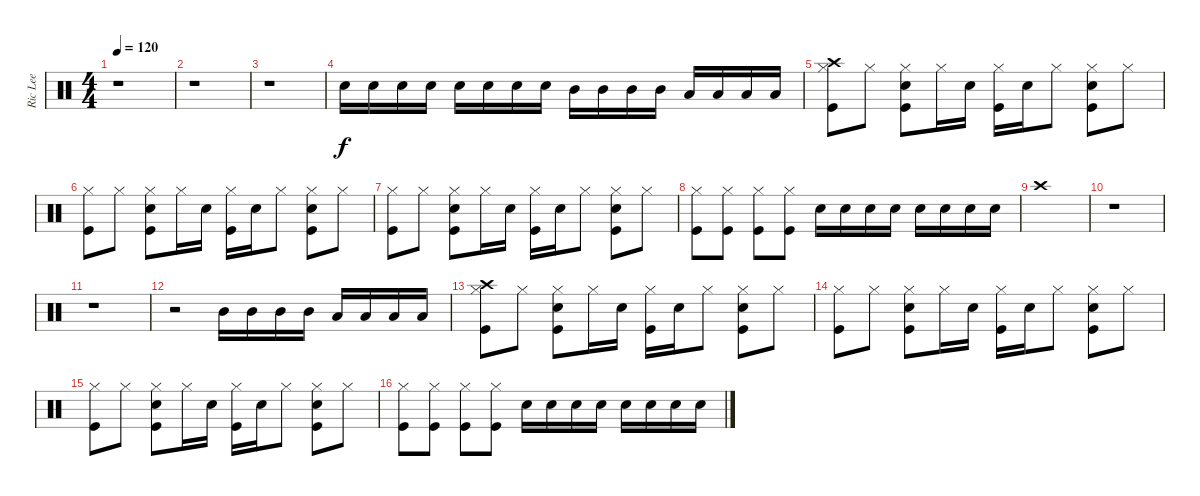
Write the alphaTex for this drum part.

\track ("Ric Lee" "Ric Lee") {instrument percussion}
\staff {score}
\articulation defaults
\ts (4 4)
\tempo 120
\clef neutral
\ks c
r.1{dy f} |
r.1 |
r.1 |
"Snare (hit) 2".16 "Snare (hit) 2".16 "Snare (hit) 2".16 "Snare (hit) 2".16 "Snare (hit) 2".16 "Snare (hit) 2".16 "Snare (hit) 2".16 "Snare (hit) 2".16 "Mid Tom (hit)".16 "Mid Tom (hit)".16 "Mid Tom (hit)".16 "Mid Tom (hit)".16 "Low Tom (hit)".16 "Low Tom (hit)".16 "Low Tom (hit)".16 "Low Tom (hit)".16 |
("Kick (hit)" "Hi-Hat (closed)" "Crash high (hit)").8 "Hi-Hat (closed)".8 ("Kick (hit)" "Snare (hit) 2" "Hi-Hat (closed)").8 "Hi-Hat (closed)".16 "Snare (hit) 2".16 ("Kick (hit)" "Hi-Hat (closed)").16 "Snare (hit) 2".16 "Hi-Hat (closed)".8 ("Kick (hit)" "Snare (hit) 2" "Hi-Hat (closed)").8 "Hi-Hat (closed)".8 |
("Kick (hit)" "Hi-Hat (closed)").8 "Hi-Hat (closed)".8 ("Kick (hit)" "Snare (hit) 2" "Hi-Hat (closed)").8 "Hi-Hat (closed)".16 "Snare (hit) 2".16 ("Kick (hit)" "Hi-Hat (closed)").16 "Snare (hit) 2".16 "Hi-Hat (closed)".8 ("Kick (hit)" "Snare (hit) 2" "Hi-Hat (closed)").8 "Hi-Hat (closed)".8 |
("Kick (hit)" "Hi-Hat (closed)").8 "Hi-Hat (closed)".8 ("Kick (hit)" "Snare (hit) 2" "Hi-Hat (closed)").8 "Hi-Hat (closed)".16 "Snare (hit) 2".16 ("Kick (hit)" "Hi-Hat (closed)").16 "Snare (hit) 2".16 "Hi-Hat (closed)".8 ("Kick (hit)" "Snare (hit) 2" "Hi-Hat (closed)").8 "Hi-Hat (closed)".8 |
("Kick (hit)" "Hi-Hat (closed)").8 ("Kick (hit)" "Hi-Hat (closed)").8 ("Kick (hit)" "Hi-Hat (closed)").8 ("Kick (hit)" "Hi-Hat (closed)").8 "Snare (hit) 2".16 "Snare (hit) 2".16 "Snare (hit) 2".16 "Snare (hit) 2".16 "Snare (hit) 2".16 "Snare (hit) 2".16 "Snare (hit) 2".16 "Snare (hit) 2".16 |
"Crash high (hit)".1 |
r.1 |
r.1 |
r.2 "Mid Tom (hit)".16 "Mid Tom (hit)".16 "Mid Tom (hit)".16 "Mid Tom (hit)".16 "Low Tom (hit)".16 "Low Tom (hit)".16 "Low Tom (hit)".16 "Low Tom (hit)".16 |
("Kick (hit)" "Hi-Hat (closed)" "Crash high (hit)").8 "Hi-Hat (closed)".8 ("Kick (hit)" "Snare (hit) 2" "Hi-Hat (closed)").8 "Hi-Hat (closed)".16 "Snare (hit) 2".16 ("Kick (hit)" "Hi-Hat (closed)").16 "Snare (hit) 2".16 "Hi-Hat (closed)".8 ("Kick (hit)" "Snare (hit) 2" "Hi-Hat (closed)").8 "Hi-Hat (closed)".8 |
("Kick (hit)" "Hi-Hat (closed)").8 "Hi-Hat (closed)".8 ("Kick (hit)" "Snare (hit) 2" "Hi-Hat (closed)").8 "Hi-Hat (closed)".16 "Snare (hit) 2".16 ("Kick (hit)" "Hi-Hat (closed)").16 "Snare (hit) 2".16 "Hi-Hat (closed)".8 ("Kick (hit)" "Snare (hit) 2" "Hi-Hat (closed)").8 "Hi-Hat (closed)".8 |
("Kick (hit)" "Hi-Hat (closed)").8 "Hi-Hat (closed)".8 ("Kick (hit)" "Snare (hit) 2" "Hi-Hat (closed)").8 "Hi-Hat (closed)".16 "Snare (hit) 2".16 ("Kick (hit)" "Hi-Hat (closed)").16 "Snare (hit) 2".16 "Hi-Hat (closed)".8 ("Kick (hit)" "Snare (hit) 2" "Hi-Hat (closed)").8 "Hi-Hat (closed)".8 |
("Kick (hit)" "Hi-Hat (closed)").8 ("Kick (hit)" "Hi-Hat (closed)").8 ("Kick (hit)" "Hi-Hat (closed)").8 ("Kick (hit)" "Hi-Hat (closed)").8 "Snare (hit) 2".16 "Snare (hit) 2".16 "Snare (hit) 2".16 "Snare (hit) 2".16 "Snare (hit) 2".16 "Snare (hit) 2".16 "Snare (hit) 2".16 "Snare (hit) 2".16
